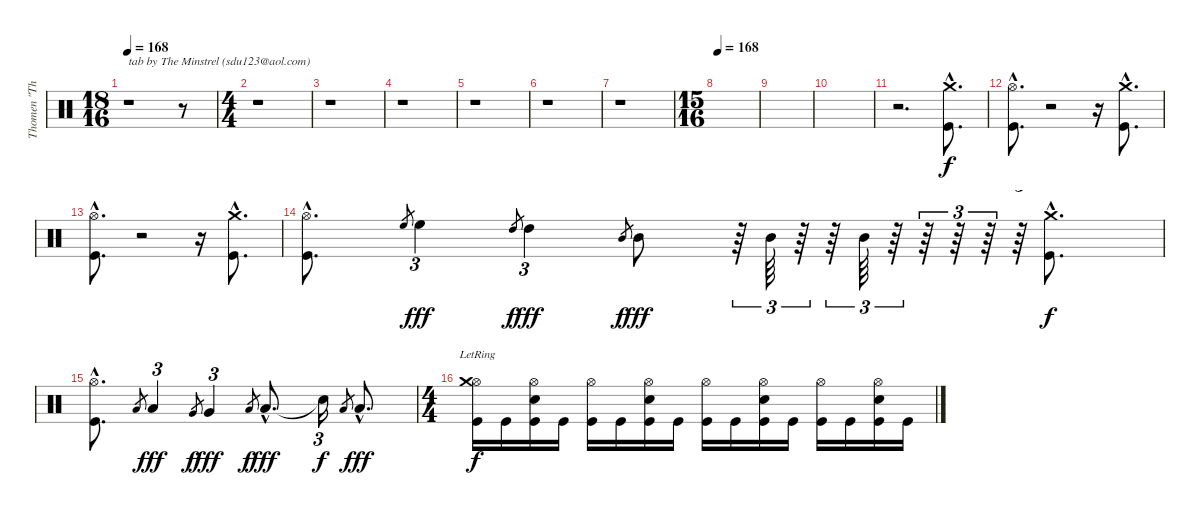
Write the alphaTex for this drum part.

\track ("Thomen \"The Omen\" Stauch" "Thomen \"Th") {instrument percussion}
\staff {score}
\articulation defaults
\ts (18 16)
\tempo 168
\tempo 110
\tempo 168
\clef neutral
\ks c
r.1{txt "tab by The Minstrel (sdu123@aol.com)" dy f} r.8 |
\ts (4 4)
r.1 |
r.1 |
r.1 |
r.1 |
r.1 |
r.1 |
\ts (15 16)
\tempo 168
|
|
|
r.2{d} ("Crash medium (hit)"{hac} "Kick (hit)"{hac}).8{d} |
("Hi-Hat (open)"{hac} "Kick (hit)"{hac}).8{d} r.2 r.16 ("Crash medium (hit)"{hac} "Kick (hit)"{hac}).8{d} |
("Hi-Hat (open)"{hac} "Kick (hit)"{hac}).8{d} r.2 r.16 ("Crash medium (hit)"{hac} "Kick (hit)"{hac}).8{d} |
("Hi-Hat (open)"{hac} "Kick (hit)"{hac}).8{d} "High Floor Tom (hit)".8{gr} "High Floor Tom (hit)".4{tu (3 2) dy fff} "High Tom (hit)".8{gr dy f} "High Tom (hit)".4{tu (3 2) dy fff} "Mid Tom (hit)".8{gr dy f} "Mid Tom (hit)".8{dy fff} r.64{tu (3 2)} "Mid Tom (hit)".64{tu (3 2)} r.64{tu (3 2)} r.64{tu (3 2)} "Mid Tom (hit)".64{tu (3 2)} r.64{tu (3 2)} r.64{tu (3 2)} r.64{tu (3 2)} r.64{tu (3 2)} r.64{tu (3 2)} ("Crash medium (hit)"{hac} "Kick (hit)"{hac}).8{d dy f} |
("Hi-Hat (open)"{hac} "Kick (hit)"{hac}).8{d} "Low Tom (hit)".8{gr} "Low Tom (hit)".4{tu (3 2) dy fff} "Very Low Tom (hit)".8{gr dy f} "Very Low Tom (hit)".4{tu (3 2) dy fff} "Low Floor Tom (hit)".8{gr dy f} "Low Floor Tom (hit)"{hac}.8{d dy fff} "Snare (hit)"{t}.16{tu (3 2) dy f} "Low Floor Tom (hit)".8{gr} "Low Floor Tom (hit)"{hac}.8{d dy fff} |
\ts (4 4)
("Hi-Hat (open)" "Crash medium (hit)"{lr} "Kick (hit)").16{dy f} "Kick (hit)".16 ("Hi-Hat (open)" "Snare (hit) 2" "Kick (hit)").16 "Kick (hit)".16 ("Hi-Hat (open)" "Kick (hit)").16 "Kick (hit)".16 ("Hi-Hat (open)" "Snare (hit) 2" "Kick (hit)").16 "Kick (hit)".16 ("Hi-Hat (open)" "Kick (hit)").16 "Kick (hit)".16 ("Hi-Hat (open)" "Snare (hit) 2" "Kick (hit)").16 "Kick (hit)".16 ("Hi-Hat (open)" "Kick (hit)").16 "Kick (hit)".16 ("Hi-Hat (open)" "Snare (hit) 2" "Kick (hit)").16 "Kick (hit)".16
